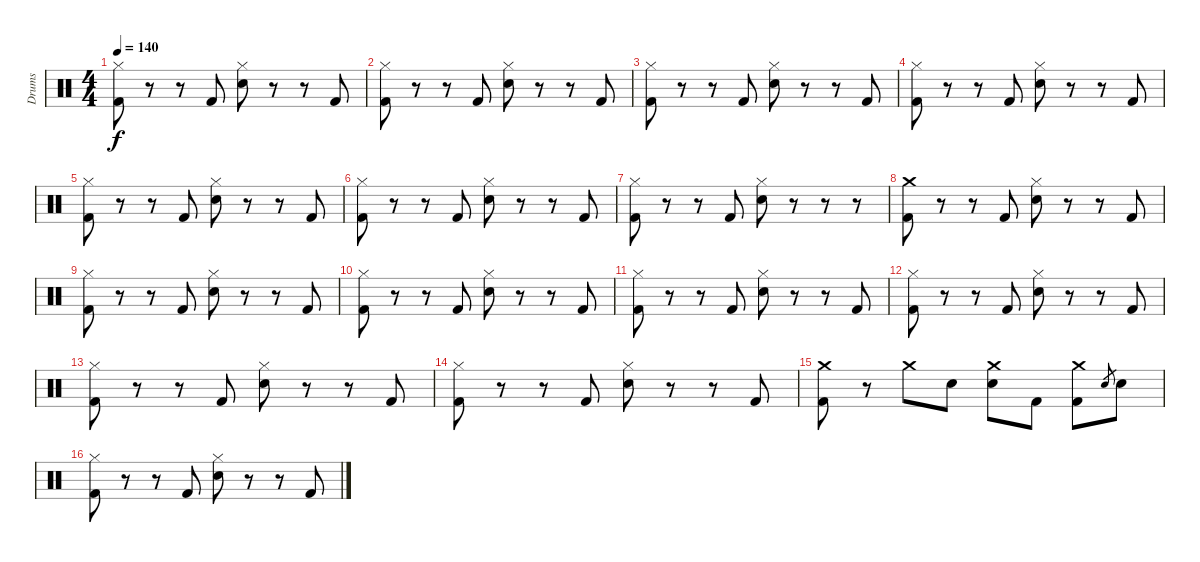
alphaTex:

\track ("Drums" "Drums") {instrument percussion}
\staff {score}
\articulation defaults
\ts (4 4)
\tempo 140
\clef neutral
\ks c
("Hi-Hat (closed)" "Kick (hit) 2").8{dy f} r.8 r.8 "Kick (hit) 2".8 ("Hi-Hat (closed)" "Snare (hit) 2").8 r.8 r.8 "Kick (hit) 2".8 |
("Hi-Hat (closed)" "Kick (hit) 2").8 r.8 r.8 "Kick (hit) 2".8 ("Hi-Hat (closed)" "Snare (hit) 2").8 r.8 r.8 "Kick (hit) 2".8 |
("Hi-Hat (closed)" "Kick (hit) 2").8 r.8 r.8 "Kick (hit) 2".8 ("Hi-Hat (closed)" "Snare (hit) 2").8 r.8 r.8 "Kick (hit) 2".8 |
("Hi-Hat (closed)" "Kick (hit) 2").8 r.8 r.8 "Kick (hit) 2".8 ("Hi-Hat (closed)" "Snare (hit) 2").8 r.8 r.8 "Kick (hit) 2".8 |
("Hi-Hat (closed)" "Kick (hit) 2").8 r.8 r.8 "Kick (hit) 2".8 ("Hi-Hat (closed)" "Snare (hit) 2").8 r.8 r.8 "Kick (hit) 2".8 |
("Hi-Hat (closed)" "Kick (hit) 2").8 r.8 r.8 "Kick (hit) 2".8 ("Hi-Hat (closed)" "Snare (hit) 2").8 r.8 r.8 "Kick (hit) 2".8 |
("Hi-Hat (closed)" "Kick (hit) 2").8 r.8 r.8 "Kick (hit) 2".8 ("Hi-Hat (closed)" "Snare (hit) 2").8 r.8 r.8 r.8 |
("Crash medium (hit)" "Kick (hit) 2").8 r.8 r.8 "Kick (hit) 2".8 ("Hi-Hat (closed)" "Snare (hit) 2").8 r.8 r.8 "Kick (hit) 2".8 |
("Hi-Hat (closed)" "Kick (hit) 2").8 r.8 r.8 "Kick (hit) 2".8 ("Hi-Hat (closed)" "Snare (hit) 2").8 r.8 r.8 "Kick (hit) 2".8 |
("Hi-Hat (closed)" "Kick (hit) 2").8 r.8 r.8 "Kick (hit) 2".8 ("Hi-Hat (closed)" "Snare (hit) 2").8 r.8 r.8 "Kick (hit) 2".8 |
("Hi-Hat (closed)" "Kick (hit) 2").8 r.8 r.8 "Kick (hit) 2".8 ("Hi-Hat (closed)" "Snare (hit) 2").8 r.8 r.8 "Kick (hit) 2".8 |
("Hi-Hat (closed)" "Kick (hit) 2").8 r.8 r.8 "Kick (hit) 2".8 ("Hi-Hat (closed)" "Snare (hit) 2").8 r.8 r.8 "Kick (hit) 2".8 |
("Hi-Hat (closed)" "Kick (hit) 2").8 r.8 r.8 "Kick (hit) 2".8 ("Hi-Hat (closed)" "Snare (hit) 2").8 r.8 r.8 "Kick (hit) 2".8 |
("Hi-Hat (closed)" "Kick (hit) 2").8 r.8 r.8 "Kick (hit) 2".8 ("Hi-Hat (closed)" "Snare (hit) 2").8 r.8 r.8 "Kick (hit) 2".8 |
("Crash medium (hit)" "Kick (hit) 2").8 r.8 "Crash medium (hit)".8 "Electric Snare (hit)".8 ("Crash medium (hit)" "Electric Snare (hit)").8 "Kick (hit) 2".8 ("Crash medium (hit)" "Kick (hit) 2").8 "Electric Snare (hit)".8{gr} "Electric Snare (hit)".8 |
("Hi-Hat (closed)" "Kick (hit) 2").8 r.8 r.8 "Kick (hit) 2".8 ("Hi-Hat (closed)" "Snare (hit) 2").8 r.8 r.8 "Kick (hit) 2".8
